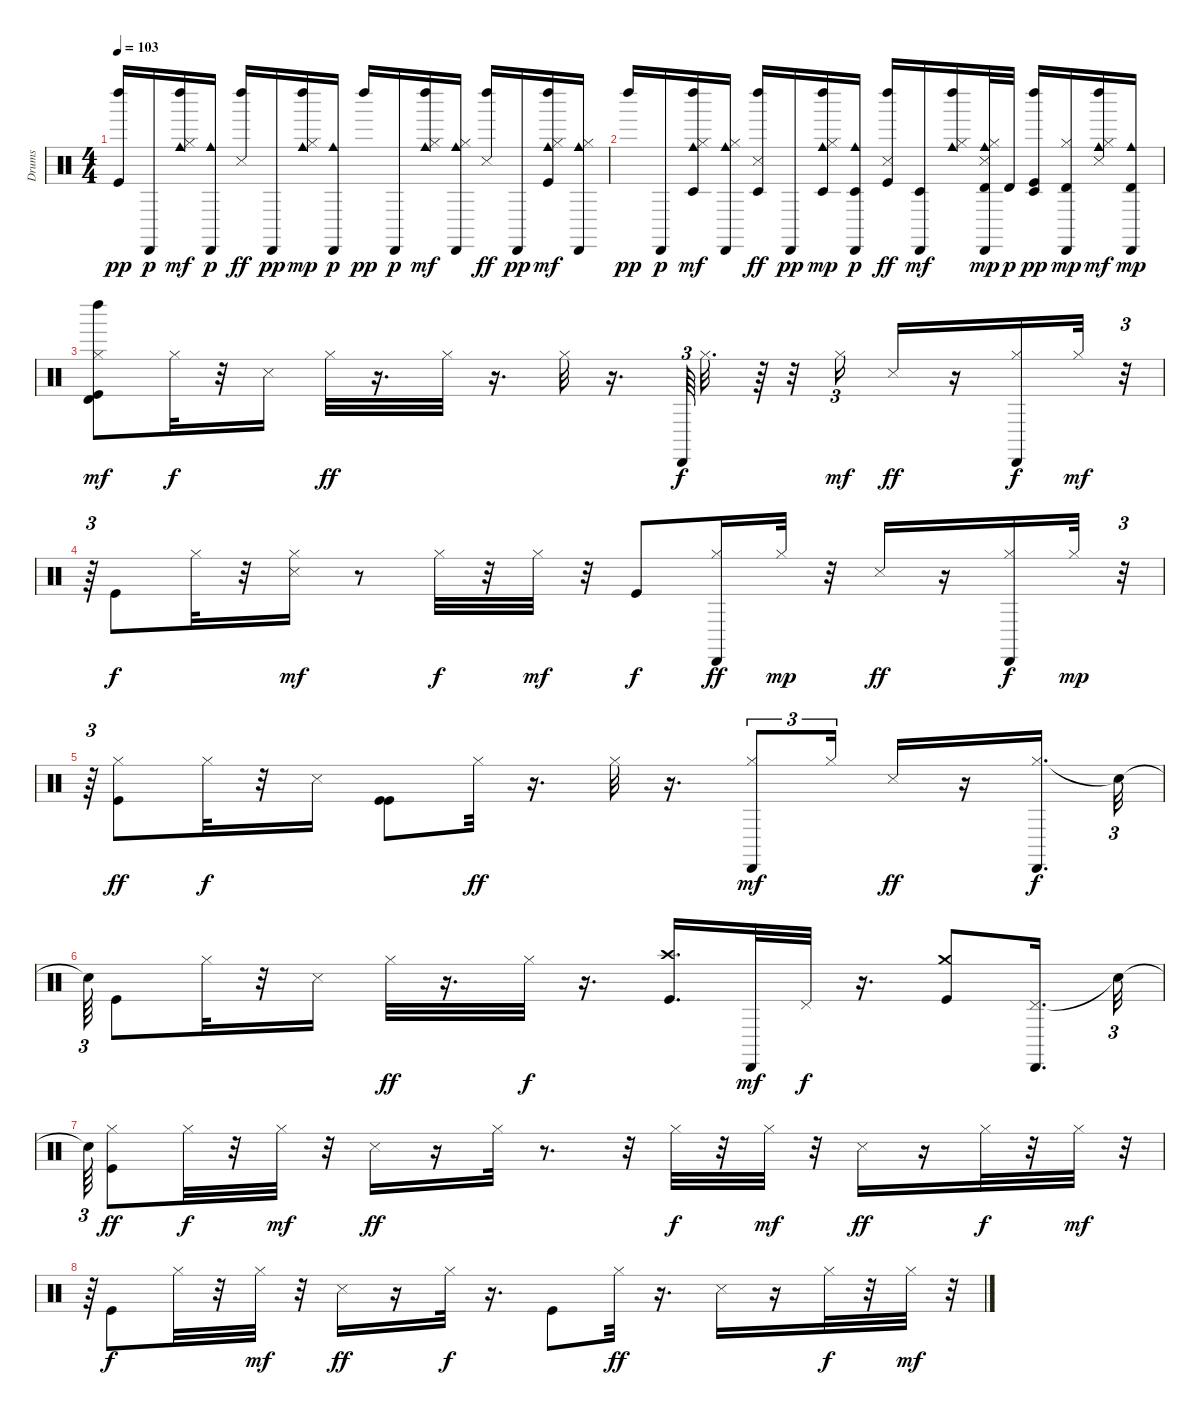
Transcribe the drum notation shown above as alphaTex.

\track ("Drums" "Drums") {instrument percussion}
\staff {score}
\articulation defaults
\ts (4 4)
\tempo 103
\clef neutral
\ks c
("Left Maraca (hit)" "Kick (hit)").16{dy pp} "Cabasa (hit)".16{dy p} ("Left Maraca (hit)" "Hi-Hat (closed)" "Cowbell medium (hit)").16{dy mf} ("Cowbell medium (hit)" "Cabasa (hit)").16{dy p} ("Left Maraca (hit)" "Snare (side stick) 3").16{dy ff} "Cabasa (hit)".16{dy pp} ("Left Maraca (hit)" "Hi-Hat (closed)" "Cowbell medium (hit)").16{dy mp} ("Cowbell medium (hit)" "Cabasa (hit)").16{dy p} "Left Maraca (hit)".16{dy pp} "Cabasa (hit)".16{dy p} ("Left Maraca (hit)" "Hi-Hat (closed)" "Cowbell medium (hit)").16{dy mf} ("Cowbell medium (hit)" "Cabasa (hit)" "Hi-Hat (closed)").16 ("Left Maraca (hit)" "Snare (side stick) 3").16{dy ff} "Cabasa (hit)".16{dy pp} ("Left Maraca (hit)" "Kick (hit)" "Hi-Hat (closed)" "Cowbell medium (hit)").16{dy mf} ("Cowbell medium (hit)" "Cabasa (hit)" "Hi-Hat (closed)").16 |
"Left Maraca (hit)".16{dy pp} "Cabasa (hit)".16{dy p} ("Timbale low (hit)" "Left Maraca (hit)" "Hi-Hat (closed)" "Cowbell medium (hit)").16{dy mf} ("Cowbell medium (hit)" "Cabasa (hit)" "Hi-Hat (closed)").16 ("Timbale low (hit)" "Left Maraca (hit)" "Snare (side stick) 3").16{dy ff} "Cabasa (hit)".16{dy pp} ("Left Maraca (hit)" "Hi-Hat (closed)" "Cowbell medium (hit)" "Timbale low (hit)").16{dy mp} ("Timbale low (hit)" "Cowbell medium (hit)" "Cabasa (hit)").16{dy p} ("Left Maraca (hit)" "Kick (hit)" "Snare (side stick) 3").16{dy ff} ("Cabasa (hit)" "Timbale low (hit)").16{dy mf} ("Left Maraca (hit)" "Hi-Hat (closed)" "Cowbell medium (hit)").16 ("Cowbell medium (hit)" "Cabasa (hit)" "Snare (side stick) 3" "Timbale high (hit)" "Hi-Hat (closed)").32{dy mp} "Timbale high (hit)".32{dy p} ("Left Maraca (hit)" "Kick (hit)" "Timbale low (hit)").16{dy pp} ("Cabasa (hit)" "Timbale high (hit)" "Hi-Hat (closed)").16{dy mp} ("Left Maraca (hit)" "Snare (side stick) 3" "Hi-Hat (closed)" "Cowbell medium (hit)").16{dy mf} ("Cowbell medium (hit)" "Cabasa (hit)" "Timbale high (hit)").16{dy mp} |
("Left Maraca (hit)" "Kick (hit)" "Hi-Hat (closed)" "Timbale high (hit)").8{dy mf} "Hi-Hat (closed)".32{dy f} r.32 "Snare (side stick) 3".16 "Hi-Hat (closed)".32{dy ff} r.16{d} "Hi-Hat (closed)".32 r.16{d} "Hi-Hat (closed)".32 r.16{d} "Cabasa (hit)".64{tu (3 2) dy f} "Hi-Hat (closed)".32{d} r.64 r.32 "Hi-Hat (closed)".16{tu (3 2) dy mf} "Snare (side stick) 3".16{dy ff} r.16 ("Cabasa (hit)" "Hi-Hat (closed)").16{dy f} "Hi-Hat (closed)".32{dy mf} r.32{tu (3 2)} |
r.64{tu (3 2)} "Kick (hit)".8{dy f} "Hi-Hat (closed)".32 r.32 ("Snare (side stick) 3" "Hi-Hat (closed)").16{dy mf} r.8 "Hi-Hat (closed)".32{dy f} r.32 "Hi-Hat (closed)".32{dy mf} r.32 "Kick (hit)".8{dy f} ("Cabasa (hit)" "Hi-Hat (closed)").16{dy ff} "Hi-Hat (closed)".32{dy mp} r.32 "Snare (side stick) 3".16{dy ff} r.16 ("Cabasa (hit)" "Hi-Hat (closed)").16{dy f} "Hi-Hat (closed)".32{dy mp} r.32{tu (3 2)} |
r.64{tu (3 2)} ("Kick (hit)" "Hi-Hat (closed)").8{dy ff} "Hi-Hat (closed)".32{dy f} r.32 "Snare (side stick) 3".16 ("Kick (hit)" "Kick (hit)").8 "Hi-Hat (closed)".32{dy ff} r.16{d} "Hi-Hat (closed)".32 r.16{d} ("Cabasa (hit)" "Hi-Hat (closed)").8{tu (3 2) dy mf} "Hi-Hat (closed)".16{tu (3 2)} "Snare (side stick) 3".16{dy ff} r.16 ("Hi-Hat (closed)" "Cabasa (hit)").16{d dy f} "Snare (hit)"{t}.32{tu (3 2)} |
"Snare (hit)"{t}.64{tu (3 2)} "Kick (hit)".8 "Hi-Hat (closed)".32 r.32 "Snare (side stick) 3".16 "Hi-Hat (closed)".32{dy ff} r.16{d} "Hi-Hat (closed)".32{dy f} r.16{d} ("Crash high (hit)" "Kick (hit)").16{d} "Cabasa (hit)".32{dy mf} "Pedal Hi-Hat (hit)".32{dy f} r.16{d} ("Crash medium (hit)" "Kick (hit)").8 ("Pedal Hi-Hat (hit)" "Cabasa (hit)").16{d} "Snare (hit)"{t}.32{tu (3 2)} |
"Snare (hit)"{t}.64{tu (3 2)} ("Kick (hit)" "Hi-Hat (closed)").8{dy ff} "Hi-Hat (closed)".32{dy f} r.32 "Hi-Hat (closed)".32{dy mf} r.32 "Snare (side stick) 3".16{dy ff} r.16 "Hi-Hat (closed)".32 r.8{d} r.32 "Hi-Hat (closed)".32{dy f} r.32 "Hi-Hat (closed)".32{dy mf} r.32 "Snare (side stick) 3".16{dy ff} r.16 "Hi-Hat (closed)".32{dy f} r.32 "Hi-Hat (closed)".32{dy mf} r.32{tu (3 2)} |
r.64{tu (3 2)} "Kick (hit)".8{dy f} "Hi-Hat (closed)".32 r.32 "Hi-Hat (closed)".32{dy mf} r.32 "Snare (side stick) 3".16{dy ff} r.16 "Hi-Hat (closed)".32{dy f} r.16{d} "Kick (hit)".8 "Hi-Hat (closed)".32{dy ff} r.16{d} "Snare (side stick) 3".16 r.16 "Hi-Hat (closed)".32{dy f} r.32 "Hi-Hat (closed)".32{dy mf} r.32{tu (3 2)}
